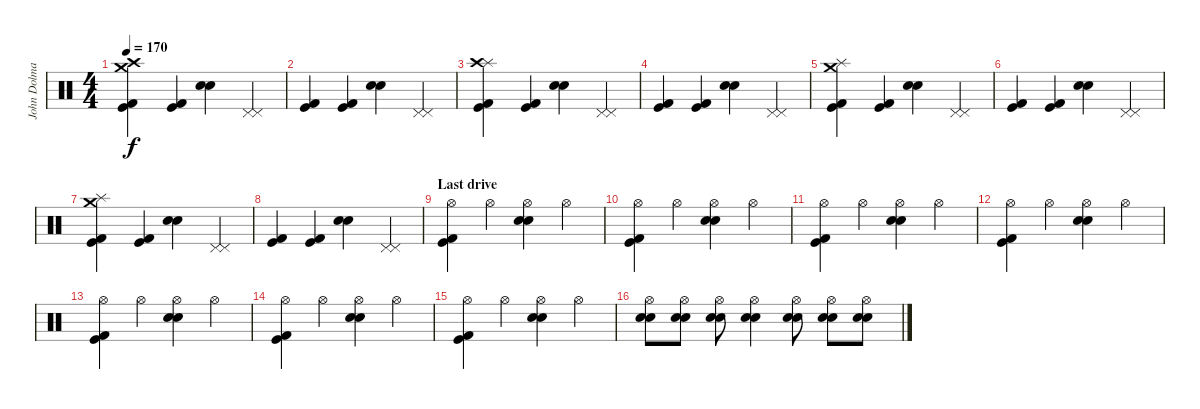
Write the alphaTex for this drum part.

\track ("John Dolmayan" "John Dolma") {instrument percussion}
\staff {score}
\articulation defaults
\ts (4 4)
\tempo 170
\clef neutral
\ks c
("Crash medium (hit)" "Kick (hit)" "Kick (hit) 2" "Crash high (hit)").4{dy f} ("Kick (hit)" "Kick (hit) 2").4 ("Snare (hit) 2" "Electric Snare (hit)").4 ("Pedal Hi-Hat (hit)" "Pedal Hi-Hat (hit)").4 |
("Kick (hit)" "Kick (hit) 2").4 ("Kick (hit)" "Kick (hit) 2").4 ("Snare (hit) 2" "Snare (hit) 2").4 ("Pedal Hi-Hat (hit)" "Pedal Hi-Hat (hit)").4 |
("Splash (hit)" "Kick (hit)" "Kick (hit) 2" "Crash high (hit)").4 ("Kick (hit)" "Kick (hit) 2").4 ("Snare (hit) 2" "Electric Snare (hit)").4 ("Pedal Hi-Hat (hit)" "Pedal Hi-Hat (hit)").4 |
("Kick (hit)" "Kick (hit) 2").4 ("Kick (hit)" "Kick (hit) 2").4 ("Snare (hit) 2" "Electric Snare (hit)").4 ("Pedal Hi-Hat (hit)" "Pedal Hi-Hat (hit)").4 |
("Splash (hit)" "Kick (hit)" "Kick (hit) 2" "Crash medium (hit)").4 ("Kick (hit)" "Kick (hit) 2").4 ("Snare (hit) 2" "Electric Snare (hit)").4 ("Pedal Hi-Hat (hit)" "Pedal Hi-Hat (hit)").4 |
("Kick (hit)" "Kick (hit) 2").4 ("Kick (hit)" "Kick (hit) 2").4 ("Snare (hit) 2" "Electric Snare (hit)").4 ("Pedal Hi-Hat (hit)" "Pedal Hi-Hat (hit)").4 |
("Splash (hit)" "Kick (hit)" "Kick (hit) 2" "Crash medium (hit)").4 ("Kick (hit)" "Kick (hit) 2").4 ("Snare (hit) 2" "Electric Snare (hit)").4 ("Pedal Hi-Hat (hit)" "Pedal Hi-Hat (hit)").4 |
("Kick (hit)" "Kick (hit) 2").4 ("Kick (hit)" "Kick (hit) 2").4 ("Snare (hit) 2" "Electric Snare (hit)").4 ("Pedal Hi-Hat (hit)" "Pedal Hi-Hat (hit)").4 |
\section ("" "Last drive")
("Hi-Hat (open)" "Kick (hit) 2" "Kick (hit)").4 "Hi-Hat (open)".4 ("Hi-Hat (open)" "Electric Snare (hit)" "Snare (hit) 2").4 "Hi-Hat (open)".4 |
("Hi-Hat (open)" "Kick (hit) 2" "Kick (hit)").4 "Hi-Hat (open)".4 ("Hi-Hat (open)" "Electric Snare (hit)" "Snare (hit) 2").4 "Hi-Hat (open)".4 |
("Hi-Hat (open)" "Kick (hit) 2" "Kick (hit)").4 "Hi-Hat (open)".4 ("Hi-Hat (open)" "Electric Snare (hit)" "Snare (hit) 2").4 "Hi-Hat (open)".4 |
("Hi-Hat (open)" "Kick (hit) 2" "Kick (hit)").4 "Hi-Hat (open)".4 ("Hi-Hat (open)" "Electric Snare (hit)" "Snare (hit) 2").4 "Hi-Hat (open)".4 |
("Hi-Hat (open)" "Kick (hit) 2" "Kick (hit)").4 "Hi-Hat (open)".4 ("Hi-Hat (open)" "Electric Snare (hit)" "Snare (hit) 2").4 "Hi-Hat (open)".4 |
("Hi-Hat (open)" "Kick (hit) 2" "Kick (hit)").4 "Hi-Hat (open)".4 ("Hi-Hat (open)" "Electric Snare (hit)" "Snare (hit) 2").4 "Hi-Hat (open)".4 |
("Hi-Hat (open)" "Kick (hit) 2" "Kick (hit)").4 "Hi-Hat (open)".4 ("Hi-Hat (open)" "Electric Snare (hit)" "Snare (hit) 2").4 "Hi-Hat (open)".4 |
("Hi-Hat (open)" "Electric Snare (hit)" "Snare (hit) 2").8 ("Hi-Hat (open)" "Snare (hit) 2" "Electric Snare (hit)").8 ("Hi-Hat (open)" "Electric Snare (hit)" "Snare (hit) 2").8 ("Hi-Hat (open)" "Snare (hit) 2" "Electric Snare (hit)").4 ("Hi-Hat (open)" "Electric Snare (hit)" "Snare (hit) 2").8 ("Hi-Hat (open)" "Snare (hit) 2" "Electric Snare (hit)").8 ("Hi-Hat (open)" "Snare (hit) 2" "Electric Snare (hit)").8
